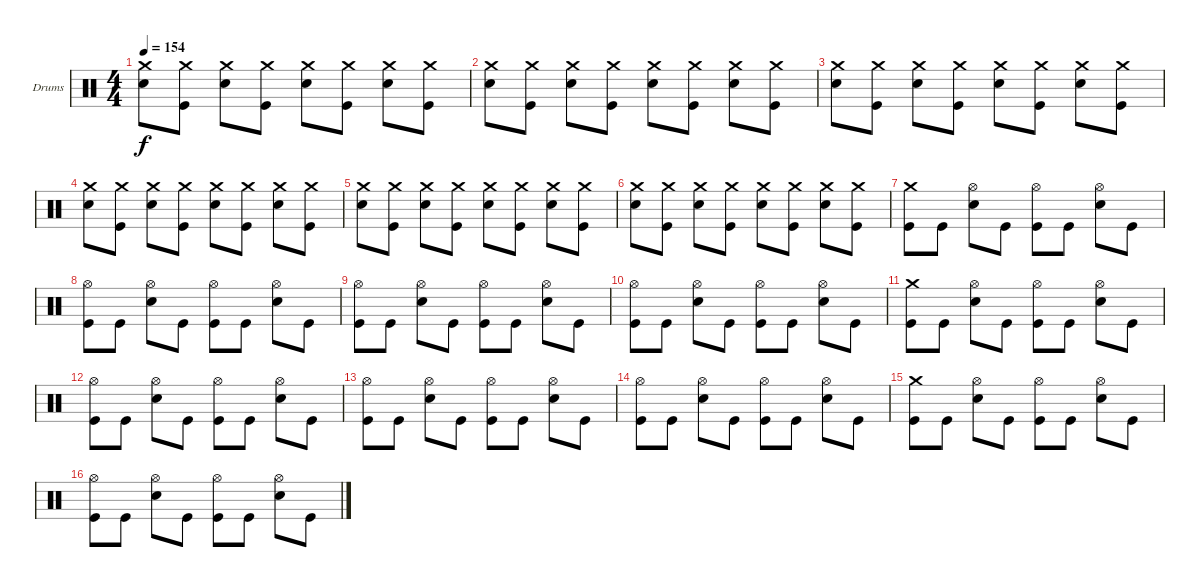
\defaultSystemsLayout 4
\bracketExtendMode groupsimilarinstruments
\firstSystemTrackNameOrientation horizontal
\otherSystemsTrackNameOrientation horizontal
\track ("Drumkit" "Drums") {instrument percussion}
\staff {score}
\articulation defaults
\ts (4 4)
\tempo 154
\clef neutral
\ks c
("Crash medium (hit)" "Snare (hit) 2").8{dy f} ("Crash medium (hit)" "Kick (hit)").8 ("Crash medium (hit)" "Snare (hit) 2").8 ("Crash medium (hit)" "Kick (hit)").8 ("Crash medium (hit)" "Snare (hit) 2").8 ("Crash medium (hit)" "Kick (hit)").8 ("Crash medium (hit)" "Snare (hit) 2").8 ("Crash medium (hit)" "Kick (hit)").8 |
("Crash medium (hit)" "Snare (hit) 2").8 ("Crash medium (hit)" "Kick (hit)").8 ("Crash medium (hit)" "Snare (hit) 2").8 ("Crash medium (hit)" "Kick (hit)").8 ("Crash medium (hit)" "Snare (hit) 2").8 ("Crash medium (hit)" "Kick (hit)").8 ("Crash medium (hit)" "Snare (hit) 2").8 ("Crash medium (hit)" "Kick (hit)").8 |
("Crash medium (hit)" "Snare (hit) 2").8 ("Crash medium (hit)" "Kick (hit)").8 ("Crash medium (hit)" "Snare (hit) 2").8 ("Crash medium (hit)" "Kick (hit)").8 ("Crash medium (hit)" "Snare (hit) 2").8 ("Crash medium (hit)" "Kick (hit)").8 ("Crash medium (hit)" "Snare (hit) 2").8 ("Crash medium (hit)" "Kick (hit)").8 |
("Crash medium (hit)" "Snare (hit) 2").8 ("Crash medium (hit)" "Kick (hit)").8 ("Crash medium (hit)" "Snare (hit) 2").8 ("Crash medium (hit)" "Kick (hit)").8 ("Crash medium (hit)" "Snare (hit) 2").8 ("Crash medium (hit)" "Kick (hit)").8 ("Crash medium (hit)" "Snare (hit) 2").8 ("Crash medium (hit)" "Kick (hit)").8 |
("Crash medium (hit)" "Snare (hit) 2").8 ("Crash medium (hit)" "Kick (hit)").8 ("Crash medium (hit)" "Snare (hit) 2").8 ("Crash medium (hit)" "Kick (hit)").8 ("Crash medium (hit)" "Snare (hit) 2").8 ("Crash medium (hit)" "Kick (hit)").8 ("Crash medium (hit)" "Snare (hit) 2").8 ("Crash medium (hit)" "Kick (hit)").8 |
("Crash medium (hit)" "Snare (hit) 2").8 ("Crash medium (hit)" "Kick (hit)").8 ("Crash medium (hit)" "Snare (hit) 2").8 ("Crash medium (hit)" "Kick (hit)").8 ("Crash medium (hit)" "Snare (hit) 2").8 ("Crash medium (hit)" "Kick (hit)").8 ("Crash medium (hit)" "Snare (hit) 2").8 ("Crash medium (hit)" "Kick (hit)").8 |
("Crash medium (hit)" "Kick (hit)").8 "Kick (hit)".8 ("Hi-Hat (open)" "Snare (hit) 2").8 "Kick (hit)".8 ("Hi-Hat (open)" "Kick (hit)").8 "Kick (hit)".8 ("Hi-Hat (open)" "Snare (hit) 2").8 "Kick (hit)".8 |
("Hi-Hat (open)" "Kick (hit)").8 "Kick (hit)".8 ("Hi-Hat (open)" "Snare (hit) 2").8 "Kick (hit)".8 ("Hi-Hat (open)" "Kick (hit)").8 "Kick (hit)".8 ("Hi-Hat (open)" "Snare (hit) 2").8 "Kick (hit)".8 |
("Hi-Hat (open)" "Kick (hit)").8 "Kick (hit)".8 ("Hi-Hat (open)" "Snare (hit) 2").8 "Kick (hit)".8 ("Hi-Hat (open)" "Kick (hit)").8 "Kick (hit)".8 ("Hi-Hat (open)" "Snare (hit) 2").8 "Kick (hit)".8 |
("Hi-Hat (open)" "Kick (hit)").8 "Kick (hit)".8 ("Hi-Hat (open)" "Snare (hit) 2").8 "Kick (hit)".8 ("Hi-Hat (open)" "Kick (hit)").8 "Kick (hit)".8 ("Hi-Hat (open)" "Snare (hit) 2").8 "Kick (hit)".8 |
("Crash medium (hit)" "Kick (hit)").8 "Kick (hit)".8 ("Hi-Hat (open)" "Snare (hit) 2").8 "Kick (hit)".8 ("Hi-Hat (open)" "Kick (hit)").8 "Kick (hit)".8 ("Hi-Hat (open)" "Snare (hit) 2").8 "Kick (hit)".8 |
("Hi-Hat (open)" "Kick (hit)").8 "Kick (hit)".8 ("Hi-Hat (open)" "Snare (hit) 2").8 "Kick (hit)".8 ("Hi-Hat (open)" "Kick (hit)").8 "Kick (hit)".8 ("Hi-Hat (open)" "Snare (hit) 2").8 "Kick (hit)".8 |
("Hi-Hat (open)" "Kick (hit)").8 "Kick (hit)".8 ("Hi-Hat (open)" "Snare (hit) 2").8 "Kick (hit)".8 ("Hi-Hat (open)" "Kick (hit)").8 "Kick (hit)".8 ("Hi-Hat (open)" "Snare (hit) 2").8 "Kick (hit)".8 |
("Hi-Hat (open)" "Kick (hit)").8 "Kick (hit)".8 ("Hi-Hat (open)" "Snare (hit) 2").8 "Kick (hit)".8 ("Hi-Hat (open)" "Kick (hit)").8 "Kick (hit)".8 ("Hi-Hat (open)" "Snare (hit) 2").8 "Kick (hit)".8 |
("Crash medium (hit)" "Kick (hit)").8 "Kick (hit)".8 ("Hi-Hat (open)" "Snare (hit) 2").8 "Kick (hit)".8 ("Hi-Hat (open)" "Kick (hit)").8 "Kick (hit)".8 ("Hi-Hat (open)" "Snare (hit) 2").8 "Kick (hit)".8 |
("Hi-Hat (open)" "Kick (hit)").8 "Kick (hit)".8 ("Hi-Hat (open)" "Snare (hit) 2").8 "Kick (hit)".8 ("Hi-Hat (open)" "Kick (hit)").8 "Kick (hit)".8 ("Hi-Hat (open)" "Snare (hit) 2").8 "Kick (hit)".8
